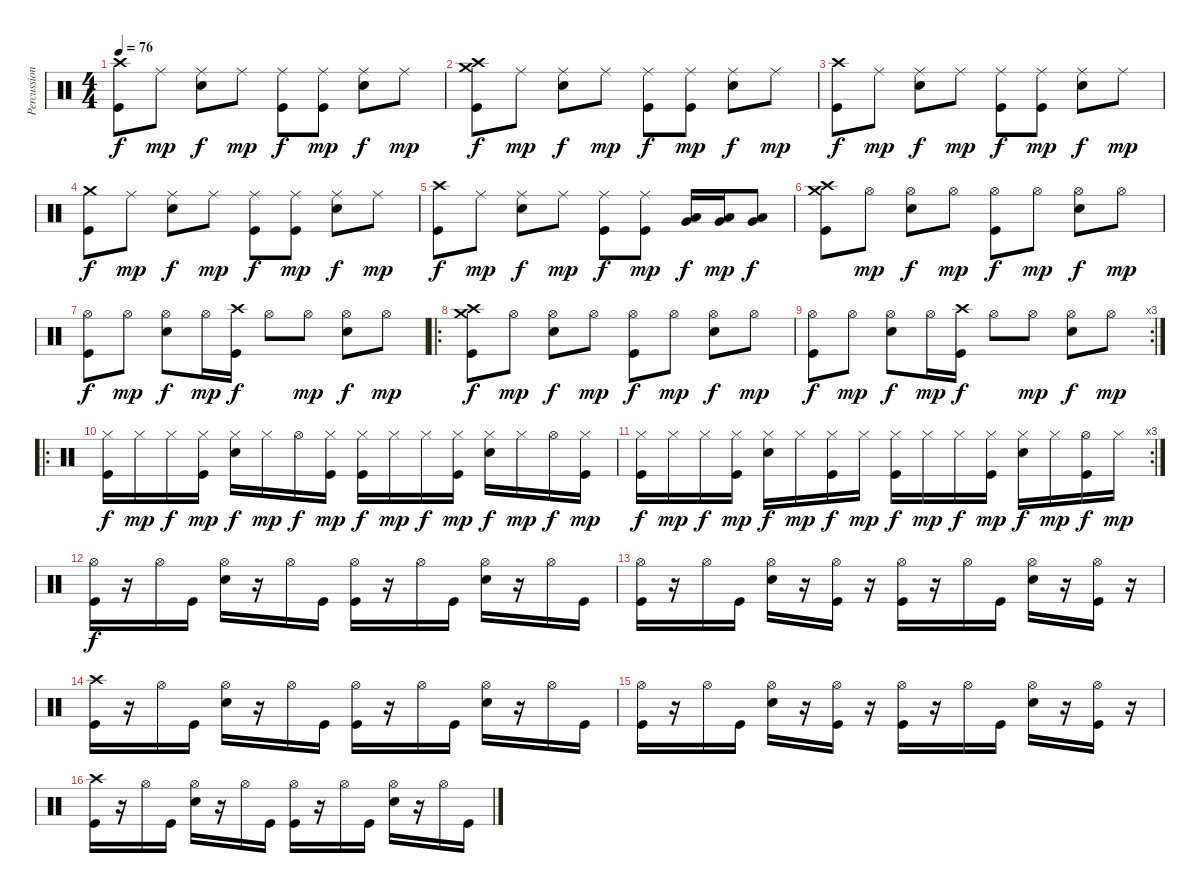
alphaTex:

\track ("Percussion" "Percussion") {instrument percussion}
\staff {score}
\articulation defaults
\ts (4 4)
\tempo 76
\clef neutral
\ks c
("Crash high (hit)" "Kick (hit)").8{dy f} "Ride (middle)".8{dy mp} ("Ride (middle)" "Electric Snare (hit)").8{dy f} "Ride (middle)".8{dy mp} ("Ride (middle)" "Kick (hit)").8{dy f} ("Ride (middle)" "Kick (hit)").8{dy mp} ("Ride (middle)" "Electric Snare (hit)").8{dy f} "Ride (middle)".8{dy mp} |
("Crash medium (hit)" "Crash high (hit)" "Kick (hit)").8{dy f} "Ride (middle)".8{dy mp} ("Ride (middle)" "Electric Snare (hit)").8{dy f} "Ride (middle)".8{dy mp} ("Ride (middle)" "Kick (hit)").8{dy f} ("Ride (middle)" "Kick (hit)").8{dy mp} ("Ride (middle)" "Electric Snare (hit)").8{dy f} "Ride (middle)".8{dy mp} |
("Crash high (hit)" "Kick (hit)").8{dy f} "Ride (middle)".8{dy mp} ("Ride (middle)" "Electric Snare (hit)").8{dy f} "Ride (middle)".8{dy mp} ("Ride (middle)" "Kick (hit)").8{dy f} ("Ride (middle)" "Kick (hit)").8{dy mp} ("Ride (middle)" "Electric Snare (hit)").8{dy f} "Ride (middle)".8{dy mp} |
("Crash medium (hit)" "Kick (hit)").8{dy f} "Ride (middle)".8{dy mp} ("Ride (middle)" "Electric Snare (hit)").8{dy f} "Ride (middle)".8{dy mp} ("Ride (middle)" "Kick (hit)").8{dy f} ("Ride (middle)" "Kick (hit)").8{dy mp} ("Ride (middle)" "Electric Snare (hit)").8{dy f} "Ride (middle)".8{dy mp} |
("Crash high (hit)" "Kick (hit)").8{dy f} "Ride (middle)".8{dy mp} ("Ride (middle)" "Electric Snare (hit)").8{dy f} "Ride (middle)".8{dy mp} ("Ride (middle)" "Kick (hit)").8{dy f} ("Ride (middle)" "Kick (hit)").8{dy mp} ("Low Tom (hit)" "Very Low Tom (hit)").16{dy f} ("Low Tom (hit)" "Very Low Tom (hit)").16{dy mp} ("Low Tom (hit)" "Very Low Tom (hit)").8{dy f} |
("Crash high (hit)" "Crash medium (hit)" "Kick (hit)").8 "Hi-Hat (open)".8{dy mp} ("Hi-Hat (open)" "Electric Snare (hit)").8{dy f} "Hi-Hat (open)".8{dy mp} ("Hi-Hat (open)" "Kick (hit)").8{dy f} "Hi-Hat (open)".8{dy mp} ("Hi-Hat (open)" "Electric Snare (hit)").8{dy f} "Hi-Hat (open)".8{dy mp} |
("Hi-Hat (open)" "Kick (hit)").8{dy f} "Hi-Hat (open)".8{dy mp} ("Hi-Hat (open)" "Electric Snare (hit)").8{dy f} "Hi-Hat (open)".16{dy mp} ("Crash high (hit)" "Kick (hit)").16{dy f} "Hi-Hat (open)".8 "Hi-Hat (open)".8{dy mp} ("Hi-Hat (open)" "Electric Snare (hit)").8{dy f} "Hi-Hat (open)".8{dy mp} |
\ro
("Crash high (hit)" "Crash medium (hit)" "Kick (hit)").8{dy f} "Hi-Hat (open)".8{dy mp} ("Hi-Hat (open)" "Electric Snare (hit)").8{dy f} "Hi-Hat (open)".8{dy mp} ("Hi-Hat (open)" "Kick (hit)").8{dy f} "Hi-Hat (open)".8{dy mp} ("Hi-Hat (open)" "Electric Snare (hit)").8{dy f} "Hi-Hat (open)".8{dy mp} |
\rc 3
("Hi-Hat (open)" "Kick (hit)").8{dy f} "Hi-Hat (open)".8{dy mp} ("Hi-Hat (open)" "Electric Snare (hit)").8{dy f} "Hi-Hat (open)".16{dy mp} ("Crash high (hit)" "Kick (hit)").16{dy f} "Hi-Hat (open)".8 "Hi-Hat (open)".8{dy mp} ("Hi-Hat (open)" "Electric Snare (hit)").8{dy f} "Hi-Hat (open)".8{dy mp} |
\ro
("Hi-Hat (closed)" "Kick (hit)").16{dy f volume 10} "Hi-Hat (closed)".16{dy mp} "Hi-Hat (closed)".16{dy f} ("Hi-Hat (closed)" "Kick (hit)").16{dy mp} ("Hi-Hat (closed)" "Electric Snare (hit)").16{dy f} "Hi-Hat (closed)".16{dy mp} "Hi-Hat (open)".16{dy f} ("Hi-Hat (closed)" "Kick (hit)").16{dy mp} ("Hi-Hat (closed)" "Kick (hit)").16{dy f} "Hi-Hat (closed)".16{dy mp} "Hi-Hat (closed)".16{dy f} ("Hi-Hat (closed)" "Kick (hit)").16{dy mp} ("Hi-Hat (closed)" "Electric Snare (hit)").16{dy f} "Hi-Hat (closed)".16{dy mp} "Hi-Hat (open)".16{dy f} ("Hi-Hat (closed)" "Kick (hit)").16{dy mp} |
\rc 3
("Hi-Hat (closed)" "Kick (hit)").16{dy f} "Hi-Hat (closed)".16{dy mp} "Hi-Hat (closed)".16{dy f} ("Hi-Hat (closed)" "Kick (hit)").16{dy mp} ("Hi-Hat (closed)" "Electric Snare (hit)").16{dy f} "Hi-Hat (closed)".16{dy mp} ("Hi-Hat (closed)" "Kick (hit)").16{dy f} "Hi-Hat (closed)".16{dy mp} ("Hi-Hat (closed)" "Kick (hit)").16{dy f} "Hi-Hat (closed)".16{dy mp} "Hi-Hat (closed)".16{dy f} ("Hi-Hat (closed)" "Kick (hit)").16{dy mp} ("Hi-Hat (closed)" "Electric Snare (hit)").16{dy f} "Hi-Hat (closed)".16{dy mp} ("Hi-Hat (open)" "Kick (hit)").16{dy f} "Hi-Hat (closed)".16{dy mp} |
("Hi-Hat (open)" "Kick (hit)").16{dy f volume 9} r.16 "Hi-Hat (open)".16 "Kick (hit)".16 ("Hi-Hat (open)" "Electric Snare (hit)").16 r.16 "Hi-Hat (open)".16 "Kick (hit)".16 ("Hi-Hat (open)" "Kick (hit)").16 r.16 "Hi-Hat (open)".16 "Kick (hit)".16 ("Hi-Hat (open)" "Electric Snare (hit)").16 r.16 "Hi-Hat (open)".16 "Kick (hit)".16 |
("Hi-Hat (open)" "Kick (hit)").16 r.16 "Hi-Hat (open)".16 "Kick (hit)".16 ("Hi-Hat (open)" "Electric Snare (hit)").16 r.16 ("Hi-Hat (open)" "Kick (hit)").16 r.16 ("Hi-Hat (open)" "Kick (hit)").16 r.16 "Hi-Hat (open)".16 "Kick (hit)".16 ("Hi-Hat (open)" "Electric Snare (hit)").16 r.16 ("Hi-Hat (open)" "Kick (hit)").16 r.16 |
("Crash high (hit)" "Kick (hit)").16{volume 13} r.16 "Hi-Hat (open)".16 "Kick (hit)".16 ("Hi-Hat (open)" "Electric Snare (hit)").16 r.16 "Hi-Hat (open)".16 "Kick (hit)".16 ("Hi-Hat (open)" "Kick (hit)").16 r.16 "Hi-Hat (open)".16 "Kick (hit)".16 ("Hi-Hat (open)" "Electric Snare (hit)").16 r.16 "Hi-Hat (open)".16 "Kick (hit)".16 |
("Hi-Hat (open)" "Kick (hit)").16 r.16 "Hi-Hat (open)".16 "Kick (hit)".16 ("Hi-Hat (open)" "Electric Snare (hit)").16 r.16 ("Hi-Hat (open)" "Kick (hit)").16 r.16 ("Hi-Hat (open)" "Kick (hit)").16 r.16 "Hi-Hat (open)".16 "Kick (hit)".16 ("Hi-Hat (open)" "Electric Snare (hit)").16 r.16 ("Hi-Hat (open)" "Kick (hit)").16 r.16 |
("Crash high (hit)" "Kick (hit)").16{volume 13} r.16 "Hi-Hat (open)".16 "Kick (hit)".16 ("Hi-Hat (open)" "Electric Snare (hit)").16 r.16 "Hi-Hat (open)".16 "Kick (hit)".16 ("Hi-Hat (open)" "Kick (hit)").16 r.16 "Hi-Hat (open)".16 "Kick (hit)".16 ("Hi-Hat (open)" "Electric Snare (hit)").16 r.16 "Hi-Hat (open)".16 "Kick (hit)".16
